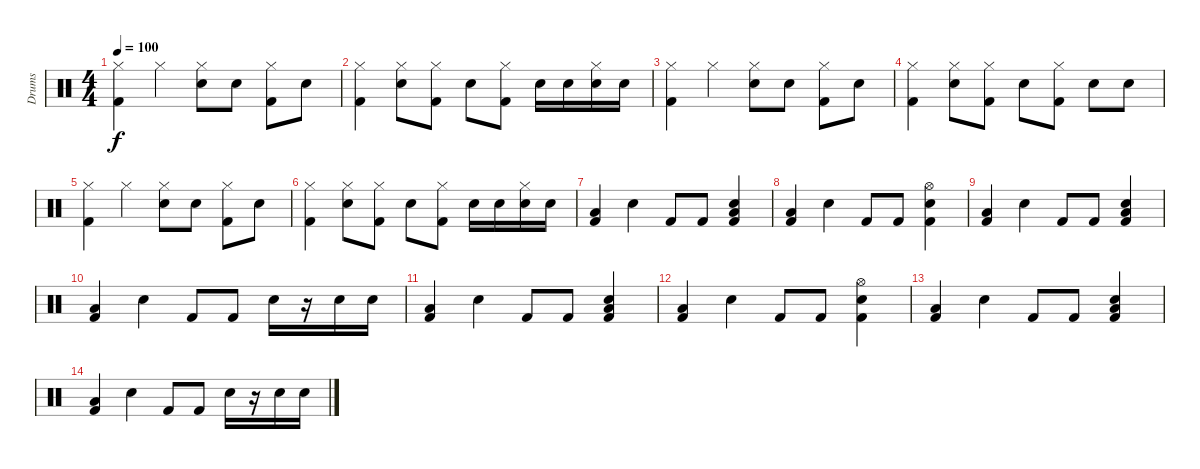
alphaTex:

\track ("Drums" "Drums") {instrument percussion}
\staff {score}
\articulation defaults
\ts (4 4)
\tempo 100
\clef neutral
\ks c
("Kick (hit) 2" "Hi-Hat (closed)").4{dy f} "Hi-Hat (closed)".4 ("Snare (hit) 2" "Hi-Hat (closed)").8 "Snare (hit) 2".8 ("Kick (hit) 2" "Hi-Hat (closed)").8 "Snare (hit) 2".8 |
("Kick (hit) 2" "Hi-Hat (closed)").4 ("Snare (hit) 2" "Hi-Hat (closed)").8 ("Kick (hit) 2" "Hi-Hat (closed)").8 "Snare (hit) 2".8 ("Kick (hit) 2" "Hi-Hat (closed)").8 "Snare (hit) 2".16 "Snare (hit) 2".16 ("Snare (hit) 2" "Hi-Hat (closed)").16 "Snare (hit) 2".16 |
("Kick (hit) 2" "Hi-Hat (closed)").4 "Hi-Hat (closed)".4 ("Snare (hit) 2" "Hi-Hat (closed)").8 "Snare (hit) 2".8 ("Kick (hit) 2" "Hi-Hat (closed)").8 "Snare (hit) 2".8 |
("Kick (hit) 2" "Hi-Hat (closed)").4 ("Snare (hit) 2" "Hi-Hat (closed)").8 ("Kick (hit) 2" "Hi-Hat (closed)").8 "Snare (hit) 2".8 ("Kick (hit) 2" "Hi-Hat (closed)").8 "Snare (hit) 2".8 "Snare (hit) 2".8 |
("Kick (hit) 2" "Hi-Hat (closed)").4 "Hi-Hat (closed)".4 ("Snare (hit) 2" "Hi-Hat (closed)").8 "Snare (hit) 2".8 ("Kick (hit) 2" "Hi-Hat (closed)").8 "Snare (hit) 2".8 |
("Kick (hit) 2" "Hi-Hat (closed)").4 ("Snare (hit) 2" "Hi-Hat (closed)").8 ("Kick (hit) 2" "Hi-Hat (closed)").8 "Snare (hit) 2".8 ("Kick (hit) 2" "Hi-Hat (closed)").8 "Snare (hit) 2".16 "Snare (hit) 2".16 ("Snare (hit) 2" "Hi-Hat (closed)").16 "Snare (hit) 2".16 |
("Kick (hit) 2" "Low Tom (hit)").4 "Snare (hit) 2".4 "Kick (hit) 2".8 "Kick (hit) 2".8 ("Kick (hit) 2" "Snare (hit) 2" "Low Tom (hit)").4 |
("Kick (hit) 2" "Low Tom (hit)").4 "Snare (hit) 2".4 "Kick (hit) 2".8 "Kick (hit) 2".8 ("Kick (hit) 2" "Snare (hit) 2" "Hi-Hat (open)").4 |
("Kick (hit) 2" "Low Tom (hit)").4 "Snare (hit) 2".4 "Kick (hit) 2".8 "Kick (hit) 2".8 ("Kick (hit) 2" "Snare (hit) 2" "Low Tom (hit)").4 |
("Kick (hit) 2" "Low Tom (hit)").4 "Snare (hit) 2".4 "Kick (hit) 2".8 "Kick (hit) 2".8 "Snare (hit) 2".16 r.16 "Snare (hit) 2".16 "Snare (hit) 2".16 |
("Kick (hit) 2" "Low Tom (hit)").4 "Snare (hit) 2".4 "Kick (hit) 2".8 "Kick (hit) 2".8 ("Kick (hit) 2" "Snare (hit) 2" "Low Tom (hit)").4 |
("Kick (hit) 2" "Low Tom (hit)").4 "Snare (hit) 2".4 "Kick (hit) 2".8 "Kick (hit) 2".8 ("Kick (hit) 2" "Snare (hit) 2" "Hi-Hat (open)").4 |
("Kick (hit) 2" "Low Tom (hit)").4 "Snare (hit) 2".4 "Kick (hit) 2".8 "Kick (hit) 2".8 ("Kick (hit) 2" "Snare (hit) 2" "Low Tom (hit)").4 |
("Kick (hit) 2" "Low Tom (hit)").4 "Snare (hit) 2".4 "Kick (hit) 2".8 "Kick (hit) 2".8 "Snare (hit) 2".16 r.16 "Snare (hit) 2".16 "Snare (hit) 2".16
